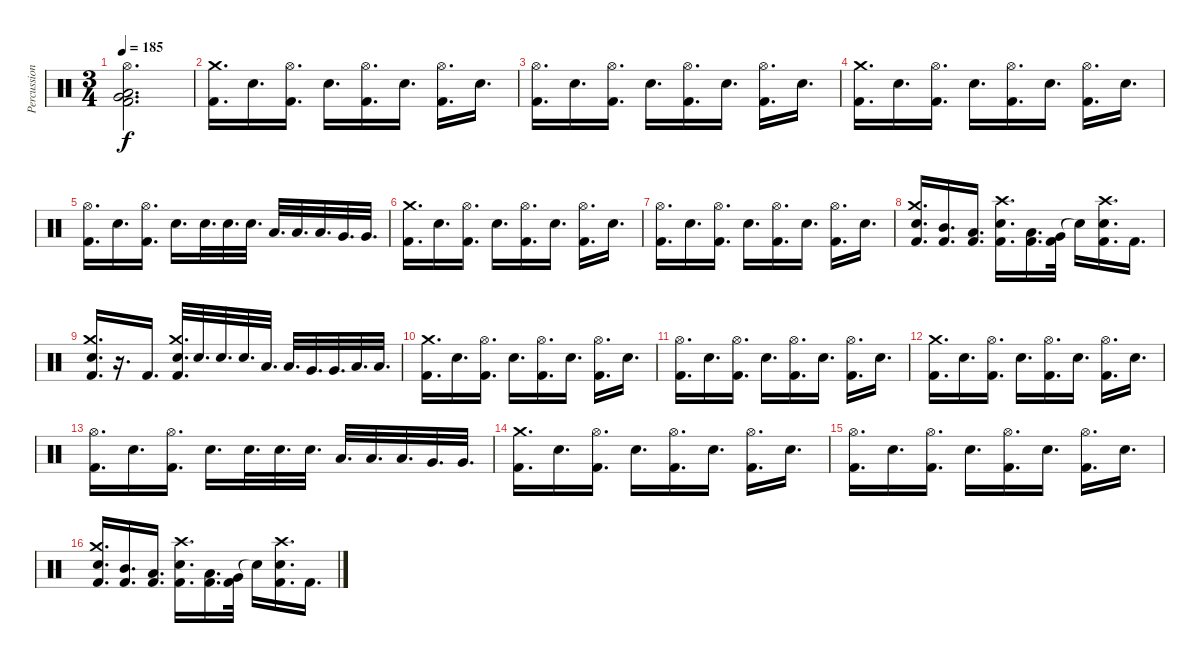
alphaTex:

\track ("Percussion" "Percussion") {instrument percussion}
\staff {score}
\articulation defaults
\ts (3 4)
\tempo 185
\clef neutral
\ks c
("Hi-Hat (open)" "Low Tom (hit)" "Very Low Tom (hit)" "Kick (hit) 2").2{d dy f} |
("Crash medium (hit)" "Kick (hit) 2").16{d} "Electric Snare (hit)".16{d} ("Hi-Hat (open)" "Kick (hit) 2").16{d} "Electric Snare (hit)".16{d} ("Hi-Hat (open)" "Kick (hit) 2").16{d} "Electric Snare (hit)".16{d} ("Hi-Hat (open)" "Kick (hit) 2").16{d} "Electric Snare (hit)".16{d} |
("Hi-Hat (open)" "Kick (hit) 2").16{d} "Electric Snare (hit)".16{d} ("Hi-Hat (open)" "Kick (hit) 2").16{d} "Electric Snare (hit)".16{d} ("Hi-Hat (open)" "Kick (hit) 2").16{d} "Electric Snare (hit)".16{d} ("Hi-Hat (open)" "Kick (hit) 2").16{d} "Electric Snare (hit)".16{d} |
("Crash medium (hit)" "Kick (hit) 2").16{d} "Electric Snare (hit)".16{d} ("Hi-Hat (open)" "Kick (hit) 2").16{d} "Electric Snare (hit)".16{d} ("Hi-Hat (open)" "Kick (hit) 2").16{d} "Electric Snare (hit)".16{d} ("Hi-Hat (open)" "Kick (hit) 2").16{d} "Electric Snare (hit)".16{d} |
("Hi-Hat (open)" "Kick (hit) 2").16{d} "Electric Snare (hit)".16{d} ("Hi-Hat (open)" "Kick (hit) 2").16{d} "Electric Snare (hit)".16{d} "Electric Snare (hit)".32{d} "Electric Snare (hit)".32{d} "Electric Snare (hit)".32{d} "Low Tom (hit)".32{d} "Low Tom (hit)".32{d} "Low Tom (hit)".32{d} "Very Low Tom (hit)".32{d} "Very Low Tom (hit)".32{d} |
("Crash medium (hit)" "Kick (hit) 2").16{d} "Electric Snare (hit)".16{d} ("Hi-Hat (open)" "Kick (hit) 2").16{d} "Electric Snare (hit)".16{d} ("Hi-Hat (open)" "Kick (hit) 2").16{d} "Electric Snare (hit)".16{d} ("Hi-Hat (open)" "Kick (hit) 2").16{d} "Electric Snare (hit)".16{d} |
("Hi-Hat (open)" "Kick (hit) 2").16{d} "Electric Snare (hit)".16{d} ("Hi-Hat (open)" "Kick (hit) 2").16{d} "Electric Snare (hit)".16{d} ("Hi-Hat (open)" "Kick (hit) 2").16{d} "Electric Snare (hit)".16{d} ("Hi-Hat (open)" "Kick (hit) 2").16{d} "Electric Snare (hit)".16{d} |
("Crash medium (hit)" "Electric Snare (hit)" "Kick (hit) 2").16{d} ("Mid Tom (hit)" "Kick (hit) 2").16{d} ("Low Tom (hit)" "Kick (hit) 2").16{d} ("Crash high (hit)" "Electric Snare (hit)" "Kick (hit) 2").16{d} ("Low Tom (hit)" "Kick (hit) 2").16{d} ("Very Low Tom (hit)" "Kick (hit) 2").32 "Snare (hit)"{t}.16 ("Crash high (hit)" "Electric Snare (hit)" "Kick (hit) 2").16{d} "Kick (hit) 2".16{d} |
("Crash medium (hit)" "Electric Snare (hit)" "Kick (hit) 2").16{d} r.16{d} "Kick (hit) 2".16{d} ("Crash medium (hit)" "Electric Snare (hit)" "Kick (hit) 2").32{d} "Electric Snare (hit)".32{d} "Electric Snare (hit)".32{d} "Electric Snare (hit)".32{d} "Low Tom (hit)".32{d} "Low Tom (hit)".32{d} "Very Low Tom (hit)".32{d} "Very Low Tom (hit)".32{d} "Low Floor Tom (hit)".32{d} "Low Floor Tom (hit)".32{d} |
("Crash medium (hit)" "Kick (hit) 2").16{d} "Electric Snare (hit)".16{d} ("Hi-Hat (open)" "Kick (hit) 2").16{d} "Electric Snare (hit)".16{d} ("Hi-Hat (open)" "Kick (hit) 2").16{d} "Electric Snare (hit)".16{d} ("Hi-Hat (open)" "Kick (hit) 2").16{d} "Electric Snare (hit)".16{d} |
("Hi-Hat (open)" "Kick (hit) 2").16{d} "Electric Snare (hit)".16{d} ("Hi-Hat (open)" "Kick (hit) 2").16{d} "Electric Snare (hit)".16{d} ("Hi-Hat (open)" "Kick (hit) 2").16{d} "Electric Snare (hit)".16{d} ("Hi-Hat (open)" "Kick (hit) 2").16{d} "Electric Snare (hit)".16{d} |
("Crash medium (hit)" "Kick (hit) 2").16{d} "Electric Snare (hit)".16{d} ("Hi-Hat (open)" "Kick (hit) 2").16{d} "Electric Snare (hit)".16{d} ("Hi-Hat (open)" "Kick (hit) 2").16{d} "Electric Snare (hit)".16{d} ("Hi-Hat (open)" "Kick (hit) 2").16{d} "Electric Snare (hit)".16{d} |
("Hi-Hat (open)" "Kick (hit) 2").16{d} "Electric Snare (hit)".16{d} ("Hi-Hat (open)" "Kick (hit) 2").16{d} "Electric Snare (hit)".16{d} "Electric Snare (hit)".32{d} "Electric Snare (hit)".32{d} "Electric Snare (hit)".32{d} "Low Tom (hit)".32{d} "Low Tom (hit)".32{d} "Low Tom (hit)".32{d} "Very Low Tom (hit)".32{d} "Very Low Tom (hit)".32{d} |
("Crash medium (hit)" "Kick (hit) 2").16{d} "Electric Snare (hit)".16{d} ("Hi-Hat (open)" "Kick (hit) 2").16{d} "Electric Snare (hit)".16{d} ("Hi-Hat (open)" "Kick (hit) 2").16{d} "Electric Snare (hit)".16{d} ("Hi-Hat (open)" "Kick (hit) 2").16{d} "Electric Snare (hit)".16{d} |
("Hi-Hat (open)" "Kick (hit) 2").16{d} "Electric Snare (hit)".16{d} ("Hi-Hat (open)" "Kick (hit) 2").16{d} "Electric Snare (hit)".16{d} ("Hi-Hat (open)" "Kick (hit) 2").16{d} "Electric Snare (hit)".16{d} ("Hi-Hat (open)" "Kick (hit) 2").16{d} "Electric Snare (hit)".16{d} |
("Crash medium (hit)" "Electric Snare (hit)" "Kick (hit) 2").16{d} ("Mid Tom (hit)" "Kick (hit) 2").16{d} ("Low Tom (hit)" "Kick (hit) 2").16{d} ("Crash high (hit)" "Electric Snare (hit)" "Kick (hit) 2").16{d} ("Low Tom (hit)" "Kick (hit) 2").16{d} ("Very Low Tom (hit)" "Kick (hit) 2").32 "Snare (hit)"{t}.16 ("Crash high (hit)" "Electric Snare (hit)" "Kick (hit) 2").16{d} "Kick (hit) 2".16{d}
